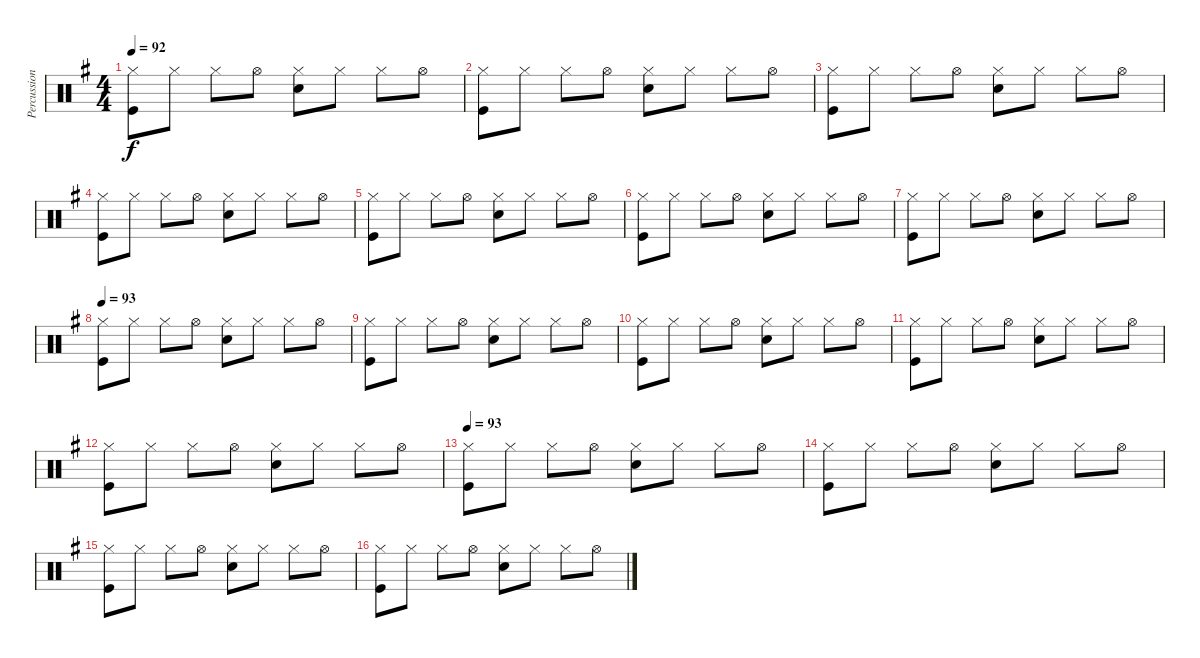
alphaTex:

\track ("Percussions" "Percussion") {instrument percussion}
\staff {score}
\articulation defaults
\ts (4 4)
\tempo 92
\clef neutral
\ks g
("Kick (hit)" "Hi-Hat (closed)").8{dy f} "Hi-Hat (closed)".8 "Hi-Hat (closed)".8 "Hi-Hat (open)".8 ("Hi-Hat (closed)" "Snare (hit) 2").8 "Hi-Hat (closed)".8 "Hi-Hat (closed)".8 "Hi-Hat (open)".8 |
("Kick (hit)" "Hi-Hat (closed)").8 "Hi-Hat (closed)".8 "Hi-Hat (closed)".8 "Hi-Hat (open)".8 ("Hi-Hat (closed)" "Snare (hit) 2").8 "Hi-Hat (closed)".8 "Hi-Hat (closed)".8 "Hi-Hat (open)".8 |
("Kick (hit)" "Hi-Hat (closed)").8 "Hi-Hat (closed)".8 "Hi-Hat (closed)".8 "Hi-Hat (open)".8 ("Hi-Hat (closed)" "Snare (hit) 2").8 "Hi-Hat (closed)".8 "Hi-Hat (closed)".8 "Hi-Hat (open)".8 |
("Kick (hit)" "Hi-Hat (closed)").8 "Hi-Hat (closed)".8 "Hi-Hat (closed)".8 "Hi-Hat (open)".8 ("Hi-Hat (closed)" "Snare (hit) 2").8 "Hi-Hat (closed)".8 "Hi-Hat (closed)".8 "Hi-Hat (open)".8 |
("Kick (hit)" "Hi-Hat (closed)").8 "Hi-Hat (closed)".8 "Hi-Hat (closed)".8 "Hi-Hat (open)".8 ("Hi-Hat (closed)" "Snare (hit) 2").8 "Hi-Hat (closed)".8 "Hi-Hat (closed)".8 "Hi-Hat (open)".8 |
("Kick (hit)" "Hi-Hat (closed)").8 "Hi-Hat (closed)".8 "Hi-Hat (closed)".8 "Hi-Hat (open)".8 ("Hi-Hat (closed)" "Snare (hit) 2").8 "Hi-Hat (closed)".8 "Hi-Hat (closed)".8 "Hi-Hat (open)".8 |
("Kick (hit)" "Hi-Hat (closed)").8 "Hi-Hat (closed)".8 "Hi-Hat (closed)".8 "Hi-Hat (open)".8 ("Hi-Hat (closed)" "Snare (hit) 2").8 "Hi-Hat (closed)".8 "Hi-Hat (closed)".8 "Hi-Hat (open)".8 |
\tempo 93
("Kick (hit)" "Hi-Hat (closed)").8 "Hi-Hat (closed)".8 "Hi-Hat (closed)".8 "Hi-Hat (open)".8 ("Hi-Hat (closed)" "Snare (hit) 2").8 "Hi-Hat (closed)".8 "Hi-Hat (closed)".8 "Hi-Hat (open)".8 |
("Kick (hit)" "Hi-Hat (closed)").8 "Hi-Hat (closed)".8 "Hi-Hat (closed)".8 "Hi-Hat (open)".8 ("Hi-Hat (closed)" "Snare (hit) 2").8 "Hi-Hat (closed)".8 "Hi-Hat (closed)".8 "Hi-Hat (open)".8 |
("Kick (hit)" "Hi-Hat (closed)").8 "Hi-Hat (closed)".8 "Hi-Hat (closed)".8 "Hi-Hat (open)".8 ("Hi-Hat (closed)" "Snare (hit) 2").8 "Hi-Hat (closed)".8 "Hi-Hat (closed)".8 "Hi-Hat (open)".8 |
("Kick (hit)" "Hi-Hat (closed)").8 "Hi-Hat (closed)".8 "Hi-Hat (closed)".8 "Hi-Hat (open)".8 ("Hi-Hat (closed)" "Snare (hit) 2").8 "Hi-Hat (closed)".8 "Hi-Hat (closed)".8 "Hi-Hat (open)".8 |
("Kick (hit)" "Hi-Hat (closed)").8 "Hi-Hat (closed)".8 "Hi-Hat (closed)".8 "Hi-Hat (open)".8 ("Hi-Hat (closed)" "Snare (hit) 2").8 "Hi-Hat (closed)".8 "Hi-Hat (closed)".8 "Hi-Hat (open)".8 |
\tempo 93
("Kick (hit)" "Hi-Hat (closed)").8 "Hi-Hat (closed)".8 "Hi-Hat (closed)".8 "Hi-Hat (open)".8 ("Hi-Hat (closed)" "Snare (hit) 2").8 "Hi-Hat (closed)".8 "Hi-Hat (closed)".8 "Hi-Hat (open)".8 |
("Kick (hit)" "Hi-Hat (closed)").8 "Hi-Hat (closed)".8 "Hi-Hat (closed)".8 "Hi-Hat (open)".8 ("Hi-Hat (closed)" "Snare (hit) 2").8 "Hi-Hat (closed)".8 "Hi-Hat (closed)".8 "Hi-Hat (open)".8 |
("Kick (hit)" "Hi-Hat (closed)").8 "Hi-Hat (closed)".8 "Hi-Hat (closed)".8 "Hi-Hat (open)".8 ("Hi-Hat (closed)" "Snare (hit) 2").8 "Hi-Hat (closed)".8 "Hi-Hat (closed)".8 "Hi-Hat (open)".8 |
("Kick (hit)" "Hi-Hat (closed)").8 "Hi-Hat (closed)".8 "Hi-Hat (closed)".8 "Hi-Hat (open)".8 ("Hi-Hat (closed)" "Snare (hit) 2").8 "Hi-Hat (closed)".8 "Hi-Hat (closed)".8 "Hi-Hat (open)".8
